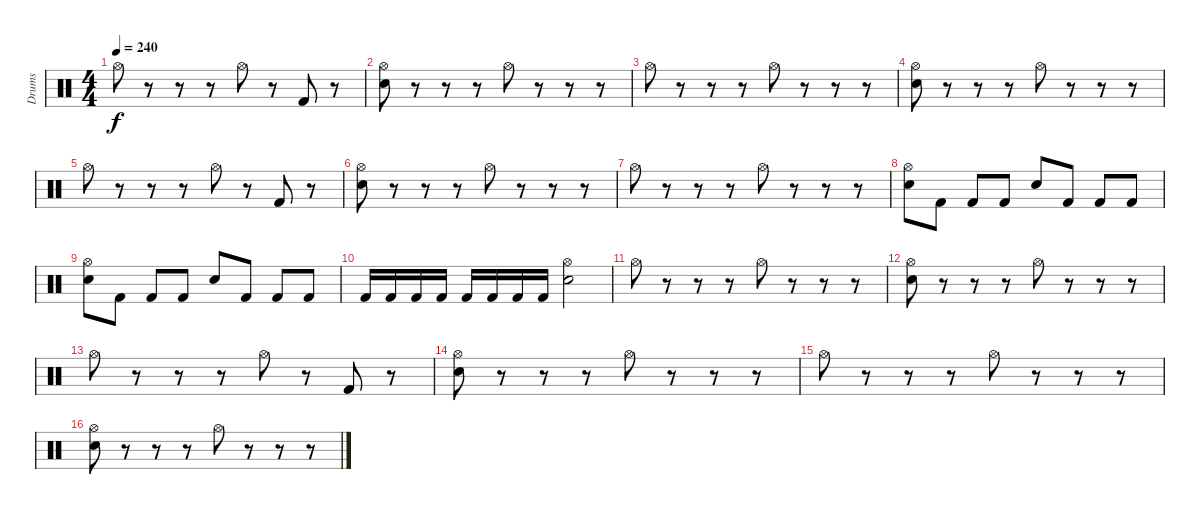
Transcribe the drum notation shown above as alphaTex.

\track ("Drums" "Drums") {instrument percussion}
\staff {score}
\articulation defaults
\ts (4 4)
\tempo 240
\clef neutral
\ks c "Hi-Hat (open)".8{dy f}
r.8 r.8 r.8 "Hi-Hat (open)".8 r.8 "Kick (hit) 2".8 r.8 |
("Hi-Hat (open)" "Snare (hit) 2").8 r.8 r.8 r.8 "Hi-Hat (open)".8 r.8 r.8 r.8 |
"Hi-Hat (open)".8 r.8 r.8 r.8 "Hi-Hat (open)".8 r.8 r.8 r.8 |
("Hi-Hat (open)" "Snare (hit) 2").8 r.8 r.8 r.8 "Hi-Hat (open)".8 r.8 r.8 r.8 |
"Hi-Hat (open)".8 r.8 r.8 r.8 "Hi-Hat (open)".8 r.8 "Kick (hit) 2".8 r.8 |
("Hi-Hat (open)" "Snare (hit) 2").8 r.8 r.8 r.8 "Hi-Hat (open)".8 r.8 r.8 r.8 |
"Hi-Hat (open)".8 r.8 r.8 r.8 "Hi-Hat (open)".8 r.8 r.8 r.8 |
("Hi-Hat (open)" "Snare (hit) 2").8 "Kick (hit) 2".8 "Kick (hit) 2".8 "Kick (hit) 2".8 "Snare (hit) 2".8 "Kick (hit) 2".8 "Kick (hit) 2".8 "Kick (hit) 2".8 |
("Hi-Hat (open)" "Snare (hit) 2").8 "Kick (hit) 2".8 "Kick (hit) 2".8 "Kick (hit) 2".8 "Snare (hit) 2".8 "Kick (hit) 2".8 "Kick (hit) 2".8 "Kick (hit) 2".8 |
"Kick (hit) 2".16 "Kick (hit) 2".16 "Kick (hit) 2".16 "Kick (hit) 2".16 "Kick (hit) 2".16 "Kick (hit) 2".16 "Kick (hit) 2".16 "Kick (hit) 2".16 ("Hi-Hat (open)" "Snare (hit) 2").2 |
"Hi-Hat (open)".8 r.8 r.8 r.8 "Hi-Hat (open)".8 r.8 r.8 r.8 |
("Hi-Hat (open)" "Snare (hit) 2").8 r.8 r.8 r.8 "Hi-Hat (open)".8 r.8 r.8 r.8 |
"Hi-Hat (open)".8 r.8 r.8 r.8 "Hi-Hat (open)".8 r.8 "Kick (hit) 2".8 r.8 |
("Hi-Hat (open)" "Snare (hit) 2").8 r.8 r.8 r.8 "Hi-Hat (open)".8 r.8 r.8 r.8 |
"Hi-Hat (open)".8 r.8 r.8 r.8 "Hi-Hat (open)".8 r.8 r.8 r.8 |
("Hi-Hat (open)" "Snare (hit) 2").8 r.8 r.8 r.8 "Hi-Hat (open)".8 r.8 r.8 r.8
